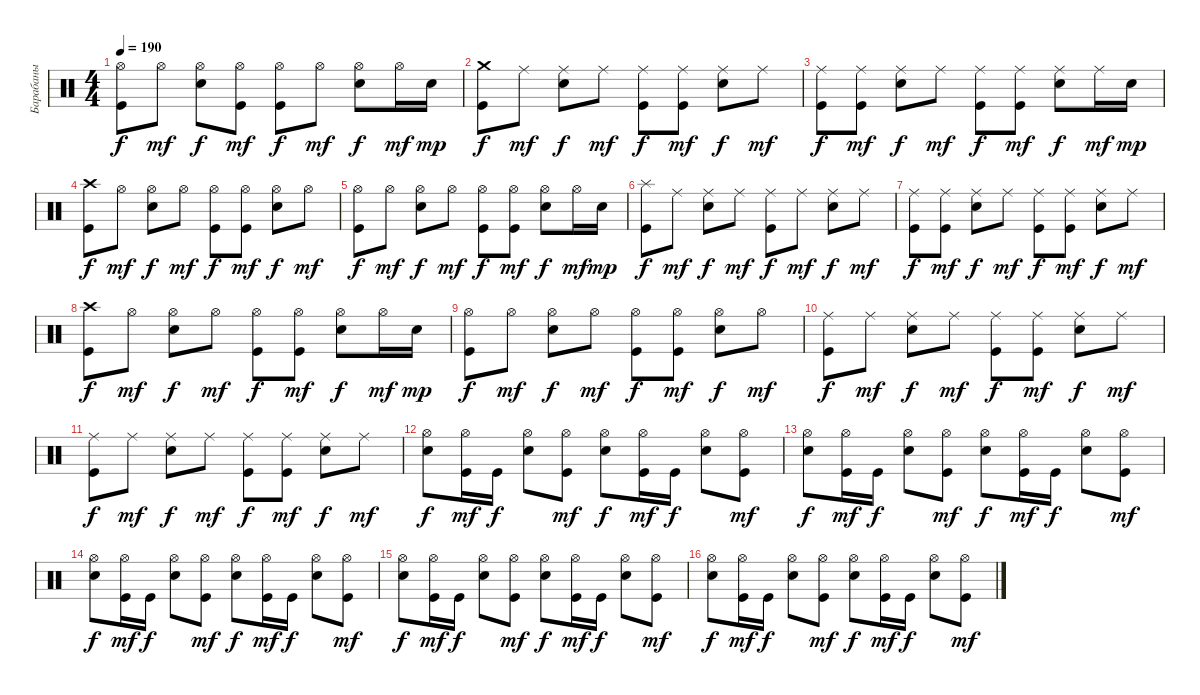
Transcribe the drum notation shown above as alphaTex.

\track ("Барабаны" "Барабаны") {instrument percussion}
\staff {score}
\articulation defaults
\ts (4 4)
\tempo 190
\clef neutral
\ks c
("Hi-Hat (open)" "Kick (hit)").8{dy f} "Hi-Hat (open)".8{dy mf} ("Hi-Hat (open)" "Electric Snare (hit)").8{dy f} ("Hi-Hat (open)" "Kick (hit)").8{dy mf} ("Hi-Hat (open)" "Kick (hit)").8{dy f} "Hi-Hat (open)".8{dy mf} ("Hi-Hat (open)" "Electric Snare (hit)").8{dy f} "Hi-Hat (open)".16{dy mf} "Electric Snare (hit)".16{dy mp} |
("Crash medium (hit)" "Kick (hit)").8{dy f} "Ride (middle)".8{dy mf} ("Ride (middle)" "Electric Snare (hit)").8{dy f} "Ride (middle)".8{dy mf} ("Ride (middle)" "Kick (hit)").8{dy f} ("Ride (middle)" "Kick (hit)").8{dy mf} ("Ride (middle)" "Electric Snare (hit)").8{dy f} "Ride (middle)".8{dy mf} |
("Ride (middle)" "Kick (hit)").8{dy f} ("Ride (middle)" "Kick (hit)").8{dy mf} ("Ride (middle)" "Electric Snare (hit)").8{dy f} "Ride (middle)".8{dy mf} ("Ride (middle)" "Kick (hit)").8{dy f} ("Ride (middle)" "Kick (hit)").8{dy mf} ("Ride (middle)" "Electric Snare (hit)").8{dy f} "Ride (middle)".16{dy mf} "Electric Snare (hit)".16{dy mp} |
("Crash high (hit)" "Kick (hit)").8{dy f} "Hi-Hat (open)".8{dy mf} ("Hi-Hat (open)" "Electric Snare (hit)").8{dy f} "Hi-Hat (open)".8{dy mf} ("Hi-Hat (open)" "Kick (hit)").8{dy f} ("Hi-Hat (open)" "Kick (hit)").8{dy mf} ("Hi-Hat (open)" "Electric Snare (hit)").8{dy f} "Hi-Hat (open)".8{dy mf} |
("Hi-Hat (open)" "Kick (hit)").8{dy f} "Hi-Hat (open)".8{dy mf} ("Hi-Hat (open)" "Electric Snare (hit)").8{dy f} "Hi-Hat (open)".8{dy mf} ("Hi-Hat (open)" "Kick (hit)").8{dy f} ("Hi-Hat (open)" "Kick (hit)").8{dy mf} ("Hi-Hat (open)" "Electric Snare (hit)").8{dy f} "Hi-Hat (open)".16{dy mf} "Electric Snare (hit)".16{dy mp} |
("Splash (hit)" "Kick (hit)").8{dy f} "Ride (middle)".8{dy mf} ("Ride (middle)" "Electric Snare (hit)").8{dy f} "Ride (middle)".8{dy mf} ("Ride (middle)" "Kick (hit)").8{dy f} "Ride (middle)".8{dy mf} ("Ride (middle)" "Electric Snare (hit)").8{dy f} "Ride (middle)".8{dy mf} |
("Ride (middle)" "Kick (hit)").8{dy f} ("Ride (middle)" "Kick (hit)").8{dy mf} ("Ride (middle)" "Electric Snare (hit)").8{dy f} "Ride (middle)".8{dy mf} ("Ride (middle)" "Kick (hit)").8{dy f} ("Ride (middle)" "Kick (hit)").8{dy mf} ("Ride (middle)" "Electric Snare (hit)").8{dy f} "Ride (middle)".8{dy mf} |
("Crash high (hit)" "Kick (hit)").8{dy f} "Hi-Hat (open)".8{dy mf} ("Hi-Hat (open)" "Electric Snare (hit)").8{dy f} "Hi-Hat (open)".8{dy mf} ("Hi-Hat (open)" "Kick (hit)").8{dy f} ("Hi-Hat (open)" "Kick (hit)").8{dy mf} ("Hi-Hat (open)" "Electric Snare (hit)").8{dy f} "Hi-Hat (open)".16{dy mf} "Electric Snare (hit)".16{dy mp} |
("Hi-Hat (open)" "Kick (hit)").8{dy f} "Hi-Hat (open)".8{dy mf} ("Hi-Hat (open)" "Electric Snare (hit)").8{dy f} "Hi-Hat (open)".8{dy mf} ("Hi-Hat (open)" "Kick (hit)").8{dy f} ("Hi-Hat (open)" "Kick (hit)").8{dy mf} ("Hi-Hat (open)" "Electric Snare (hit)").8{dy f} "Hi-Hat (open)".8{dy mf} |
("Ride (middle)" "Kick (hit)").8{dy f} "Ride (middle)".8{dy mf} ("Ride (middle)" "Electric Snare (hit)").8{dy f} "Ride (middle)".8{dy mf} ("Ride (middle)" "Kick (hit)").8{dy f} ("Ride (middle)" "Kick (hit)").8{dy mf} ("Ride (middle)" "Electric Snare (hit)").8{dy f} "Ride (middle)".8{dy mf} |
("Ride (middle)" "Kick (hit)").8{dy f} "Ride (middle)".8{dy mf} ("Ride (middle)" "Electric Snare (hit)").8{dy f} "Ride (middle)".8{dy mf} ("Ride (middle)" "Kick (hit)").8{dy f} ("Ride (middle)" "Kick (hit)").8{dy mf} ("Ride (middle)" "Electric Snare (hit)").8{dy f} "Ride (middle)".8{dy mf} |
("Hi-Hat (open)" "Electric Snare (hit)").8{dy f} ("Hi-Hat (open)" "Kick (hit)").16{dy mf} "Kick (hit)".16{dy f} ("Hi-Hat (open)" "Electric Snare (hit)").8 ("Hi-Hat (open)" "Kick (hit)").8{dy mf} ("Hi-Hat (open)" "Electric Snare (hit)").8{dy f} ("Hi-Hat (open)" "Kick (hit)").16{dy mf} "Kick (hit)".16{dy f} ("Hi-Hat (open)" "Electric Snare (hit)").8 ("Hi-Hat (open)" "Kick (hit)").8{dy mf} |
("Hi-Hat (open)" "Electric Snare (hit)").8{dy f} ("Hi-Hat (open)" "Kick (hit)").16{dy mf} "Kick (hit)".16{dy f} ("Hi-Hat (open)" "Electric Snare (hit)").8 ("Hi-Hat (open)" "Kick (hit)").8{dy mf} ("Hi-Hat (open)" "Electric Snare (hit)").8{dy f} ("Hi-Hat (open)" "Kick (hit)").16{dy mf} "Kick (hit)".16{dy f} ("Hi-Hat (open)" "Electric Snare (hit)").8 ("Hi-Hat (open)" "Kick (hit)").8{dy mf} |
("Hi-Hat (open)" "Electric Snare (hit)").8{dy f} ("Hi-Hat (open)" "Kick (hit)").16{dy mf} "Kick (hit)".16{dy f} ("Hi-Hat (open)" "Electric Snare (hit)").8 ("Hi-Hat (open)" "Kick (hit)").8{dy mf} ("Hi-Hat (open)" "Electric Snare (hit)").8{dy f} ("Hi-Hat (open)" "Kick (hit)").16{dy mf} "Kick (hit)".16{dy f} ("Hi-Hat (open)" "Electric Snare (hit)").8 ("Hi-Hat (open)" "Kick (hit)").8{dy mf} |
("Hi-Hat (open)" "Electric Snare (hit)").8{dy f} ("Hi-Hat (open)" "Kick (hit)").16{dy mf} "Kick (hit)".16{dy f} ("Hi-Hat (open)" "Electric Snare (hit)").8 ("Hi-Hat (open)" "Kick (hit)").8{dy mf} ("Hi-Hat (open)" "Electric Snare (hit)").8{dy f} ("Hi-Hat (open)" "Kick (hit)").16{dy mf} "Kick (hit)".16{dy f} ("Hi-Hat (open)" "Electric Snare (hit)").8 ("Hi-Hat (open)" "Kick (hit)").8{dy mf} |
("Hi-Hat (open)" "Electric Snare (hit)").8{dy f} ("Hi-Hat (open)" "Kick (hit)").16{dy mf} "Kick (hit)".16{dy f} ("Hi-Hat (open)" "Electric Snare (hit)").8 ("Hi-Hat (open)" "Kick (hit)").8{dy mf} ("Hi-Hat (open)" "Electric Snare (hit)").8{dy f} ("Hi-Hat (open)" "Kick (hit)").16{dy mf} "Kick (hit)".16{dy f} ("Hi-Hat (open)" "Electric Snare (hit)").8 ("Hi-Hat (open)" "Kick (hit)").8{dy mf}
